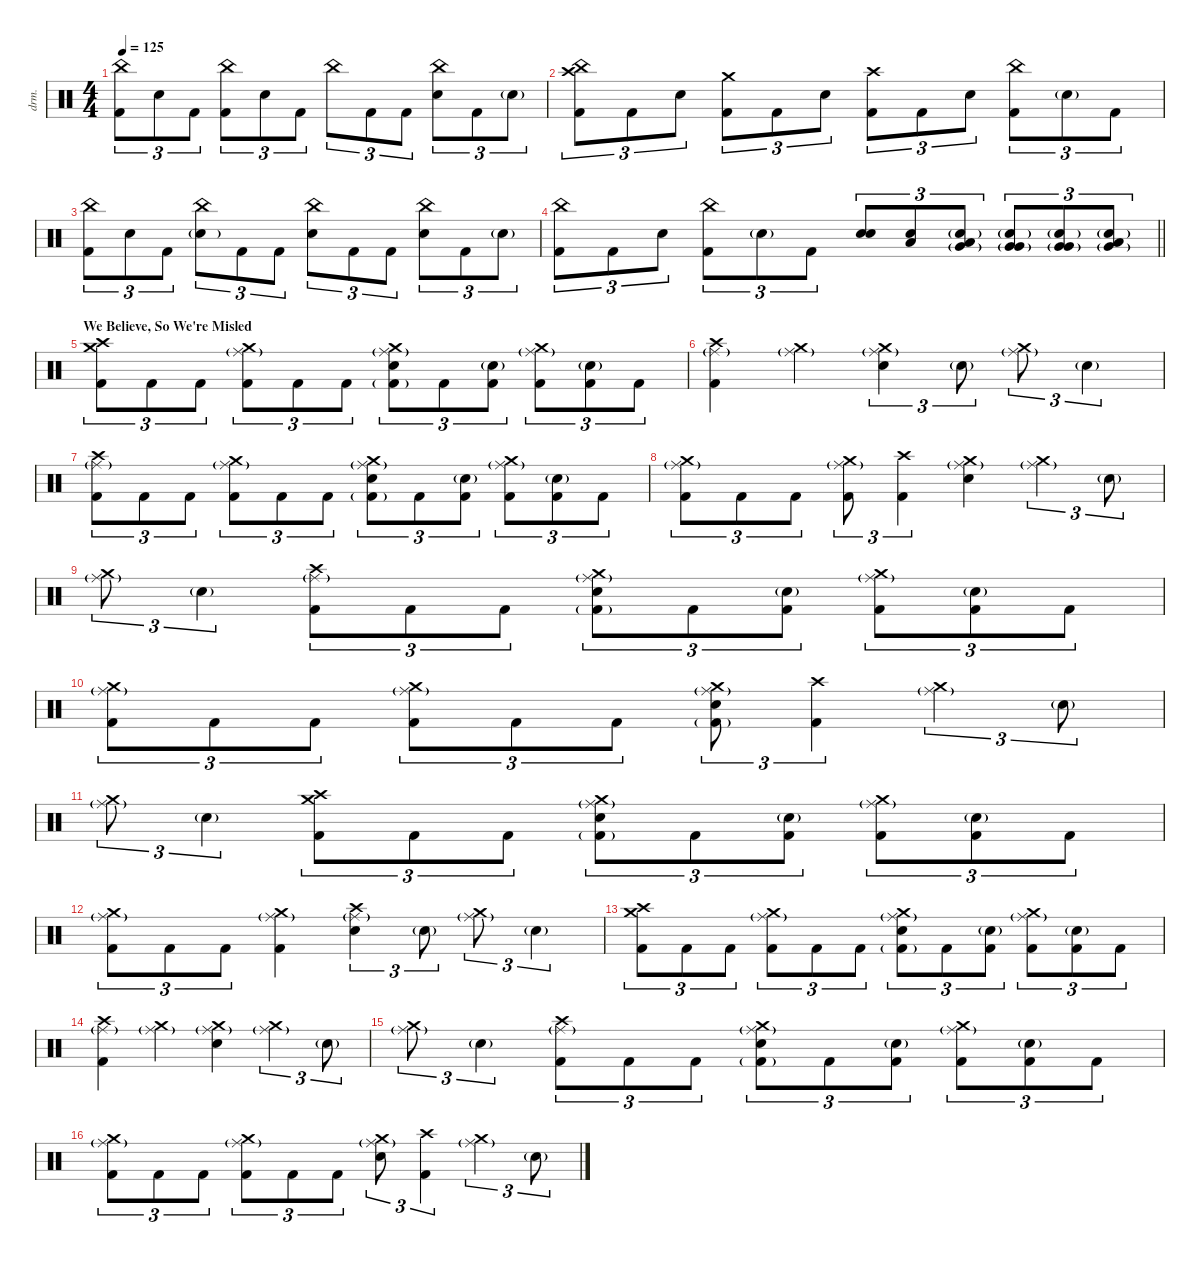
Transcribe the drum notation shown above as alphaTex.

\defaultSystemsLayout 4
\hideDynamics
\bracketExtendMode nobrackets
\track ("DRUMS (Thomas Haake)" "drm.") {instrument percussion}
\staff {score}
\articulation defaults
\ts (4 4)
\tempo 125
\clef neutral
\ks c
("China (hit)" "Kick (hit) 2").8{tu (3 2) dy f} "Snare (hit) 2".8{tu (3 2)} "Kick (hit) 2".8{tu (3 2)} ("China (hit)" "Kick (hit) 2").8{tu (3 2)} "Snare (hit) 2".8{tu (3 2)} "Kick (hit) 2".8{tu (3 2)} "China (hit)".8{tu (3 2)} "Kick (hit) 2".8{tu (3 2)} "Kick (hit) 2".8{tu (3 2)} ("China (hit)" "Snare (hit) 2").8{tu (3 2)} "Kick (hit) 2".8{tu (3 2)} "Snare (hit) 2"{g}.8{tu (3 2) dy p} |
("Crash high (hit)" "China (hit)" "Kick (hit) 2").8{tu (3 2) dy f} "Kick (hit) 2".8{tu (3 2)} "Snare (hit) 2".8{tu (3 2)} ("Crash medium (hit)" "Kick (hit) 2").8{tu (3 2)} "Kick (hit) 2".8{tu (3 2)} "Snare (hit) 2".8{tu (3 2)} ("Crash high (hit)" "Kick (hit) 2").8{tu (3 2)} "Kick (hit) 2".8{tu (3 2)} "Snare (hit) 2".8{tu (3 2)} ("China (hit)" "Kick (hit) 2").8{tu (3 2)} "Snare (hit) 2"{g}.8{tu (3 2) dy p} "Kick (hit) 2".8{tu (3 2) dy f} |
("China (hit)" "Kick (hit) 2").8{tu (3 2)} "Snare (hit) 2".8{tu (3 2)} "Kick (hit) 2".8{tu (3 2)} ("China (hit)" "Snare (hit) 2"{g}).8{tu (3 2)} "Kick (hit) 2".8{tu (3 2)} "Kick (hit) 2".8{tu (3 2)} ("China (hit)" "Snare (hit) 2").8{tu (3 2)} "Kick (hit) 2".8{tu (3 2)} "Kick (hit) 2".8{tu (3 2)} ("China (hit)" "Snare (hit) 2").8{tu (3 2)} "Kick (hit) 2".8{tu (3 2)} "Snare (hit) 2"{g}.8{tu (3 2) dy p} |
\barLineRight lightlight
("China (hit)" "Kick (hit) 2").8{tu (3 2) dy f} "Kick (hit) 2".8{tu (3 2)} "Snare (hit) 2".8{tu (3 2)} ("China (hit)" "Kick (hit) 2").8{tu (3 2)} "Snare (hit) 2"{g}.8{tu (3 2) dy p} "Kick (hit) 2".8{tu (3 2) dy f} ("Snare (hit) 2" "Snare (hit) 2").8{tu (3 2) dy mf} ("Low Tom (hit)" "Snare (hit) 2").8{tu (3 2)} ("Low Tom (hit)" "Very Low Tom (hit)"{g} "Snare (hit) 2"{g}).8{tu (3 2)} ("Very Low Tom (hit)" "Very Low Tom (hit)"{g} "Snare (hit) 2"{g}).8{tu (3 2)} ("Very Low Tom (hit)" "Very Low Tom (hit)"{g} "Snare (hit) 2"{g}).8{tu (3 2)} ("Low Floor Tom (hit)" "Very Low Tom (hit)"{g} "Snare (hit) 2"{g}).8{tu (3 2)} |
\section ("" "We Believe, So We're Misled")
("Crash medium (hit)" "Crash high (hit)" "Kick (hit) 2").8{tu (3 2) dy f} "Kick (hit) 2".8{tu (3 2)} "Kick (hit) 2".8{tu (3 2)} ("Crash medium (hit)" "Ride (middle)"{g} "Kick (hit) 2").8{tu (3 2) dy mf} "Kick (hit) 2".8{tu (3 2) dy f} "Kick (hit) 2".8{tu (3 2)} ("Crash medium (hit)" "Ride (middle)"{g} "Snare (hit) 2" "Kick (hit) 2"{g}).8{tu (3 2) dy mf} "Kick (hit) 2".8{tu (3 2) dy f} ("Snare (hit) 2"{g} "Kick (hit) 2").8{tu (3 2)} ("Crash medium (hit)" "Ride (middle)"{g} "Kick (hit) 2").8{tu (3 2) dy mf} ("Snare (hit) 2"{g} "Kick (hit) 2").8{tu (3 2) dy f} "Kick (hit) 2".8{tu (3 2)} |
("Crash high (hit)" "Ride (middle)"{g} "Kick (hit) 2").4{dy mf} ("Crash medium (hit)" "Ride (middle)"{g}).4 ("Crash medium (hit)" "Ride (middle)"{g} "Snare (hit) 2").4{tu (3 2)} "Snare (hit) 2"{g}.8{tu (3 2) dy p} ("Crash medium (hit)" "Ride (middle)"{g}).8{tu (3 2) dy mf} "Snare (hit) 2"{g}.4{tu (3 2) dy p} |
("Crash high (hit)" "Ride (middle)"{g} "Kick (hit) 2").8{tu (3 2) dy mf} "Kick (hit) 2".8{tu (3 2) dy f} "Kick (hit) 2".8{tu (3 2)} ("Crash medium (hit)" "Ride (middle)"{g} "Kick (hit) 2").8{tu (3 2) dy mf} "Kick (hit) 2".8{tu (3 2) dy f} "Kick (hit) 2".8{tu (3 2)} ("Crash medium (hit)" "Ride (middle)"{g} "Snare (hit) 2" "Kick (hit) 2"{g}).8{tu (3 2) dy mf} "Kick (hit) 2".8{tu (3 2) dy f} ("Snare (hit) 2"{g} "Kick (hit) 2").8{tu (3 2)} ("Crash medium (hit)" "Ride (middle)"{g} "Kick (hit) 2").8{tu (3 2) dy mf} ("Snare (hit) 2"{g} "Kick (hit) 2").8{tu (3 2) dy f} "Kick (hit) 2".8{tu (3 2)} |
("Crash medium (hit)" "Ride (middle)"{g} "Kick (hit) 2").8{tu (3 2) dy mf} "Kick (hit) 2".8{tu (3 2) dy f} "Kick (hit) 2".8{tu (3 2)} ("Crash medium (hit)" "Ride (middle)"{g} "Kick (hit) 2").8{tu (3 2) dy mf} ("Crash high (hit)" "Kick (hit) 2").4{tu (3 2)} ("Crash medium (hit)" "Ride (middle)"{g} "Snare (hit) 2").4 ("Crash medium (hit)" "Ride (middle)"{g}).4{tu (3 2)} "Snare (hit) 2"{g}.8{tu (3 2) dy p} |
("Crash medium (hit)" "Ride (middle)"{g}).8{tu (3 2) dy mf} "Snare (hit) 2"{g}.4{tu (3 2) dy p} ("Crash high (hit)" "Ride (middle)"{g} "Kick (hit) 2").8{tu (3 2) dy mf} "Kick (hit) 2".8{tu (3 2) dy f} "Kick (hit) 2".8{tu (3 2)} ("Crash medium (hit)" "Ride (middle)"{g} "Snare (hit) 2" "Kick (hit) 2"{g}).8{tu (3 2) dy mf} "Kick (hit) 2".8{tu (3 2) dy f} ("Snare (hit) 2"{g} "Kick (hit) 2").8{tu (3 2)} ("Crash medium (hit)" "Ride (middle)"{g} "Kick (hit) 2").8{tu (3 2) dy mf} ("Snare (hit) 2"{g} "Kick (hit) 2").8{tu (3 2) dy f} "Kick (hit) 2".8{tu (3 2)} |
("Crash medium (hit)" "Ride (middle)"{g} "Kick (hit) 2").8{tu (3 2) dy mf} "Kick (hit) 2".8{tu (3 2) dy f} "Kick (hit) 2".8{tu (3 2)} ("Crash medium (hit)" "Ride (middle)"{g} "Kick (hit) 2").8{tu (3 2) dy mf} "Kick (hit) 2".8{tu (3 2) dy f} "Kick (hit) 2".8{tu (3 2)} ("Crash medium (hit)" "Ride (middle)"{g} "Snare (hit) 2" "Kick (hit) 2"{g}).8{tu (3 2) dy mf} ("Crash high (hit)" "Kick (hit) 2").4{tu (3 2)} ("Crash medium (hit)" "Ride (middle)"{g}).4{tu (3 2)} "Snare (hit) 2"{g}.8{tu (3 2) dy p} |
("Crash medium (hit)" "Ride (middle)"{g}).8{tu (3 2) dy mf} "Snare (hit) 2"{g}.4{tu (3 2) dy p} ("Crash high (hit)" "Crash medium (hit)" "Kick (hit) 2").8{tu (3 2) dy mf} "Kick (hit) 2".8{tu (3 2) dy f} "Kick (hit) 2".8{tu (3 2)} ("Crash medium (hit)" "Ride (middle)"{g} "Snare (hit) 2" "Kick (hit) 2"{g}).8{tu (3 2) dy mf} "Kick (hit) 2".8{tu (3 2) dy f} ("Snare (hit) 2"{g} "Kick (hit) 2").8{tu (3 2)} ("Crash medium (hit)" "Ride (middle)"{g} "Kick (hit) 2").8{tu (3 2) dy mf} ("Snare (hit) 2"{g} "Kick (hit) 2").8{tu (3 2) dy f} "Kick (hit) 2".8{tu (3 2)} |
("Crash medium (hit)" "Ride (middle)"{g} "Kick (hit) 2").8{tu (3 2) dy mf} "Kick (hit) 2".8{tu (3 2) dy f} "Kick (hit) 2".8{tu (3 2)} ("Crash medium (hit)" "Ride (middle)"{g} "Kick (hit) 2").4{dy mf} ("Crash high (hit)" "Ride (middle)"{g} "Snare (hit) 2").4{tu (3 2)} "Snare (hit) 2"{g}.8{tu (3 2) dy p} ("Crash medium (hit)" "Ride (middle)"{g}).8{tu (3 2) dy mf} "Snare (hit) 2"{g}.4{tu (3 2) dy p} |
("Crash medium (hit)" "Crash high (hit)" "Kick (hit) 2").8{tu (3 2) dy mf} "Kick (hit) 2".8{tu (3 2) dy f} "Kick (hit) 2".8{tu (3 2)} ("Crash medium (hit)" "Ride (middle)"{g} "Kick (hit) 2").8{tu (3 2) dy mf} "Kick (hit) 2".8{tu (3 2) dy f} "Kick (hit) 2".8{tu (3 2)} ("Crash medium (hit)" "Ride (middle)"{g} "Snare (hit) 2" "Kick (hit) 2"{g}).8{tu (3 2) dy mf} "Kick (hit) 2".8{tu (3 2) dy f} ("Snare (hit) 2"{g} "Kick (hit) 2").8{tu (3 2)} ("Crash medium (hit)" "Ride (middle)"{g} "Kick (hit) 2").8{tu (3 2) dy mf} ("Snare (hit) 2"{g} "Kick (hit) 2").8{tu (3 2) dy f} "Kick (hit) 2".8{tu (3 2)} |
("Crash high (hit)" "Ride (middle)"{g} "Kick (hit) 2").4{dy mf} ("Crash medium (hit)" "Ride (middle)"{g}).4 ("Crash medium (hit)" "Ride (middle)"{g} "Snare (hit) 2").4 ("Crash medium (hit)" "Ride (middle)"{g}).4{tu (3 2)} "Snare (hit) 2"{g}.8{tu (3 2) dy p} |
("Crash medium (hit)" "Ride (middle)"{g}).8{tu (3 2) dy mf} "Snare (hit) 2"{g}.4{tu (3 2) dy p} ("Crash high (hit)" "Ride (middle)"{g} "Kick (hit) 2").8{tu (3 2) dy mf} "Kick (hit) 2".8{tu (3 2) dy f} "Kick (hit) 2".8{tu (3 2)} ("Crash medium (hit)" "Ride (middle)"{g} "Snare (hit) 2" "Kick (hit) 2"{g}).8{tu (3 2) dy mf} "Kick (hit) 2".8{tu (3 2) dy f} ("Snare (hit) 2"{g} "Kick (hit) 2").8{tu (3 2)} ("Crash medium (hit)" "Ride (middle)"{g} "Kick (hit) 2").8{tu (3 2) dy mf} ("Snare (hit) 2"{g} "Kick (hit) 2").8{tu (3 2) dy f} "Kick (hit) 2".8{tu (3 2)} |
("Crash medium (hit)" "Ride (middle)"{g} "Kick (hit) 2").8{tu (3 2) dy mf} "Kick (hit) 2".8{tu (3 2) dy f} "Kick (hit) 2".8{tu (3 2)} ("Crash medium (hit)" "Ride (middle)"{g} "Kick (hit) 2").8{tu (3 2) dy mf} "Kick (hit) 2".8{tu (3 2) dy f} "Kick (hit) 2".8{tu (3 2)} ("Crash medium (hit)" "Ride (middle)"{g} "Snare (hit) 2").8{tu (3 2) dy mf} ("Crash high (hit)" "Kick (hit) 2").4{tu (3 2)} ("Crash medium (hit)" "Ride (middle)"{g}).4{tu (3 2)} "Snare (hit) 2"{g}.8{tu (3 2) dy p}
